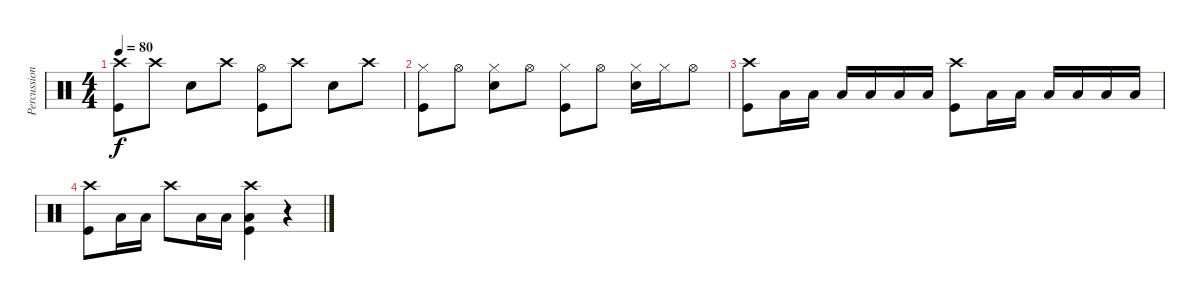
\track ("Percussion" "Percussion") {instrument percussion}
\staff {score}
\articulation defaults
\ts (4 4)
\tempo 80
\clef neutral
\ks c
("Crash high (hit)" "Kick (hit)").8{dy f} "Crash high (hit)".8 "Snare (hit) 2".8 "Crash high (hit)".8 ("Hi-Hat (open)" "Kick (hit)").8 "Crash high (hit)".8 "Snare (hit) 2".8 "Crash high (hit)".8 |
("Hi-Hat (closed)" "Kick (hit)").8 "Hi-Hat (open)".8 ("Hi-Hat (closed)" "Snare (hit) 2").8 "Hi-Hat (open)".8 ("Hi-Hat (closed)" "Kick (hit)").8 "Hi-Hat (open)".8 ("Hi-Hat (closed)" "Snare (hit) 2").16 "Hi-Hat (closed)".16 "Hi-Hat (open)".8 |
("Crash high (hit)" "Kick (hit)").8 "Low Tom (hit)".16 "Low Tom (hit)".16 "Low Tom (hit)".16 "Low Tom (hit)".16 "Low Tom (hit)".16 "Low Tom (hit)".16 ("Crash high (hit)" "Kick (hit)").8 "Low Tom (hit)".16 "Low Tom (hit)".16 "Low Tom (hit)".16 "Low Tom (hit)".16 "Low Tom (hit)".16 "Low Tom (hit)".16 |
("Crash high (hit)" "Kick (hit)").8 "Low Tom (hit)".16 "Low Tom (hit)".16 "Crash high (hit)".8 "Low Tom (hit)".16 "Low Tom (hit)".16 ("Crash high (hit)" "Low Tom (hit)" "Kick (hit)").4 r.4
